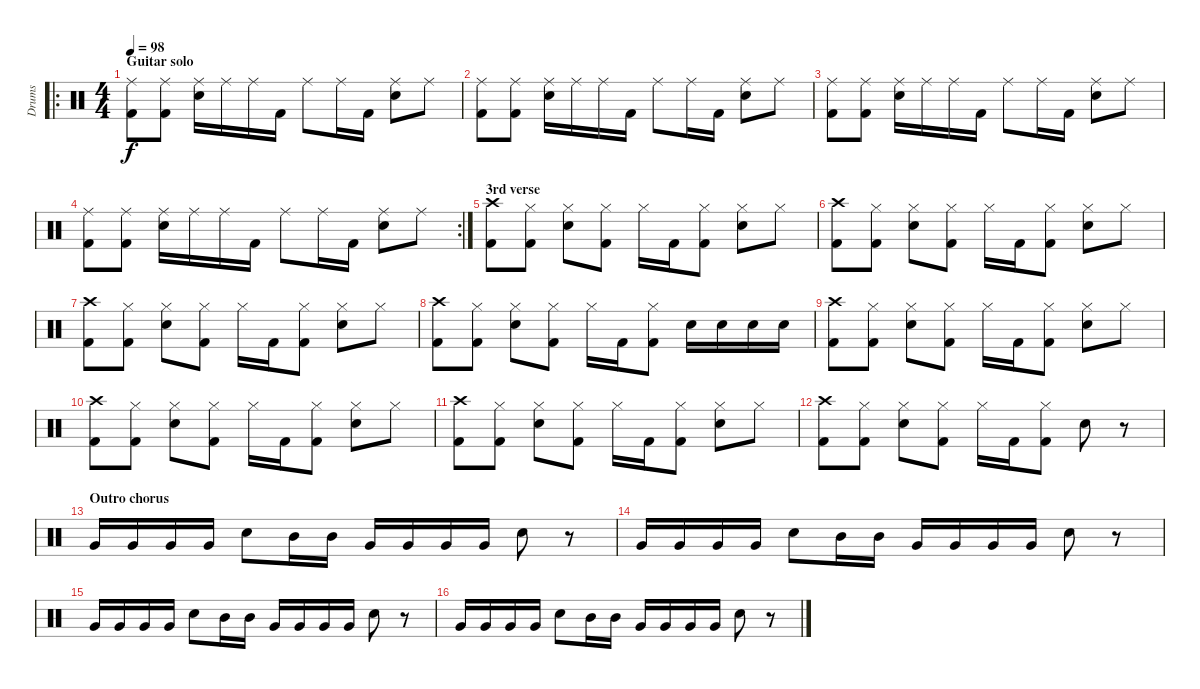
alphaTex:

\track ("Drums" "Drums") {instrument percussion}
\staff {score}
\articulation defaults
\ro
\ts (4 4)
\section ("" "Guitar solo")
\tempo 98
\clef neutral
\ks c
("Ride (middle)" "Kick (hit) 2").8{dy f} ("Ride (middle)" "Kick (hit) 2").8 ("Ride (middle)" "Electric Snare (hit)").16 "Ride (middle)".16 "Ride (middle)".16 "Kick (hit) 2".16 "Ride (middle)".8 "Ride (middle)".16 "Kick (hit) 2".16 ("Ride (middle)" "Electric Snare (hit)").8 "Ride (middle)".8 |
("Ride (middle)" "Kick (hit) 2").8 ("Ride (middle)" "Kick (hit) 2").8 ("Ride (middle)" "Electric Snare (hit)").16 "Ride (middle)".16 "Ride (middle)".16 "Kick (hit) 2".16 "Ride (middle)".8 "Ride (middle)".16 "Kick (hit) 2".16 ("Ride (middle)" "Electric Snare (hit)").8 "Ride (middle)".8 |
("Ride (middle)" "Kick (hit) 2").8 ("Ride (middle)" "Kick (hit) 2").8 ("Ride (middle)" "Electric Snare (hit)").16 "Ride (middle)".16 "Ride (middle)".16 "Kick (hit) 2".16 "Ride (middle)".8 "Ride (middle)".16 "Kick (hit) 2".16 ("Ride (middle)" "Electric Snare (hit)").8 "Ride (middle)".8 |
\rc 2
("Ride (middle)" "Kick (hit) 2").8 ("Ride (middle)" "Kick (hit) 2").8 ("Ride (middle)" "Electric Snare (hit)").16 "Ride (middle)".16 "Ride (middle)".16 "Kick (hit) 2".16 "Ride (middle)".8 "Ride (middle)".16 "Kick (hit) 2".16 ("Ride (middle)" "Electric Snare (hit)").8 "Ride (middle)".8 |
\section ("" "3rd verse")
("Crash high (hit)" "Kick (hit) 2").8 ("Hi-Hat (closed)" "Kick (hit) 2").8 ("Hi-Hat (closed)" "Electric Snare (hit)").8 ("Hi-Hat (closed)" "Kick (hit) 2").8 "Hi-Hat (closed)".16 "Kick (hit) 2".16 ("Hi-Hat (closed)" "Kick (hit) 2").8 ("Hi-Hat (closed)" "Electric Snare (hit)").8 "Hi-Hat (closed)".8 |
("Crash high (hit)" "Kick (hit) 2").8 ("Hi-Hat (closed)" "Kick (hit) 2").8 ("Hi-Hat (closed)" "Electric Snare (hit)").8 ("Hi-Hat (closed)" "Kick (hit) 2").8 "Hi-Hat (closed)".16 "Kick (hit) 2".16 ("Hi-Hat (closed)" "Kick (hit) 2").8 ("Hi-Hat (closed)" "Electric Snare (hit)").8 "Hi-Hat (closed)".8 |
("Crash high (hit)" "Kick (hit) 2").8 ("Hi-Hat (closed)" "Kick (hit) 2").8 ("Hi-Hat (closed)" "Electric Snare (hit)").8 ("Hi-Hat (closed)" "Kick (hit) 2").8 "Hi-Hat (closed)".16 "Kick (hit) 2".16 ("Hi-Hat (closed)" "Kick (hit) 2").8 ("Hi-Hat (closed)" "Electric Snare (hit)").8 "Hi-Hat (closed)".8 |
("Crash high (hit)" "Kick (hit) 2").8 ("Hi-Hat (closed)" "Kick (hit) 2").8 ("Hi-Hat (closed)" "Electric Snare (hit)").8 ("Hi-Hat (closed)" "Kick (hit) 2").8 "Hi-Hat (closed)".16 "Kick (hit) 2".16 ("Hi-Hat (closed)" "Kick (hit) 2").8 "Electric Snare (hit)".16 "Electric Snare (hit)".16 "Electric Snare (hit)".16 "Electric Snare (hit)".16 |
("Crash high (hit)" "Kick (hit) 2").8 ("Hi-Hat (closed)" "Kick (hit) 2").8 ("Hi-Hat (closed)" "Electric Snare (hit)").8 ("Hi-Hat (closed)" "Kick (hit) 2").8 "Hi-Hat (closed)".16 "Kick (hit) 2".16 ("Hi-Hat (closed)" "Kick (hit) 2").8 ("Hi-Hat (closed)" "Electric Snare (hit)").8 "Hi-Hat (closed)".8 |
("Crash high (hit)" "Kick (hit) 2").8 ("Hi-Hat (closed)" "Kick (hit) 2").8 ("Hi-Hat (closed)" "Electric Snare (hit)").8 ("Hi-Hat (closed)" "Kick (hit) 2").8 "Hi-Hat (closed)".16 "Kick (hit) 2".16 ("Hi-Hat (closed)" "Kick (hit) 2").8 ("Hi-Hat (closed)" "Electric Snare (hit)").8 "Hi-Hat (closed)".8 |
("Crash high (hit)" "Kick (hit) 2").8 ("Hi-Hat (closed)" "Kick (hit) 2").8 ("Hi-Hat (closed)" "Electric Snare (hit)").8 ("Hi-Hat (closed)" "Kick (hit) 2").8 "Hi-Hat (closed)".16 "Kick (hit) 2".16 ("Hi-Hat (closed)" "Kick (hit) 2").8 ("Hi-Hat (closed)" "Electric Snare (hit)").8 "Hi-Hat (closed)".8 |
("Crash high (hit)" "Kick (hit) 2").8 ("Hi-Hat (closed)" "Kick (hit) 2").8 ("Hi-Hat (closed)" "Electric Snare (hit)").8 ("Hi-Hat (closed)" "Kick (hit) 2").8 "Hi-Hat (closed)".16 "Kick (hit) 2".16 ("Hi-Hat (closed)" "Kick (hit) 2").8 "Electric Snare (hit)".8 r.8 |
\section ("" "Outro chorus")
"Very Low Tom (hit)".16 "Very Low Tom (hit)".16 "Very Low Tom (hit)".16 "Very Low Tom (hit)".16 "Electric Snare (hit)".8 "Mid Tom (hit)".16 "Mid Tom (hit)".16 "Very Low Tom (hit)".16 "Very Low Tom (hit)".16 "Very Low Tom (hit)".16 "Very Low Tom (hit)".16 "Electric Snare (hit)".8 r.8 |
"Very Low Tom (hit)".16 "Very Low Tom (hit)".16 "Very Low Tom (hit)".16 "Very Low Tom (hit)".16 "Electric Snare (hit)".8 "Mid Tom (hit)".16 "Mid Tom (hit)".16 "Very Low Tom (hit)".16 "Very Low Tom (hit)".16 "Very Low Tom (hit)".16 "Very Low Tom (hit)".16 "Electric Snare (hit)".8 r.8 |
"Very Low Tom (hit)".16 "Very Low Tom (hit)".16 "Very Low Tom (hit)".16 "Very Low Tom (hit)".16 "Electric Snare (hit)".8 "Mid Tom (hit)".16 "Mid Tom (hit)".16 "Very Low Tom (hit)".16 "Very Low Tom (hit)".16 "Very Low Tom (hit)".16 "Very Low Tom (hit)".16 "Electric Snare (hit)".8 r.8 |
"Very Low Tom (hit)".16 "Very Low Tom (hit)".16 "Very Low Tom (hit)".16 "Very Low Tom (hit)".16 "Electric Snare (hit)".8 "Mid Tom (hit)".16 "Mid Tom (hit)".16 "Very Low Tom (hit)".16 "Very Low Tom (hit)".16 "Very Low Tom (hit)".16 "Very Low Tom (hit)".16 "Electric Snare (hit)".8 r.8
